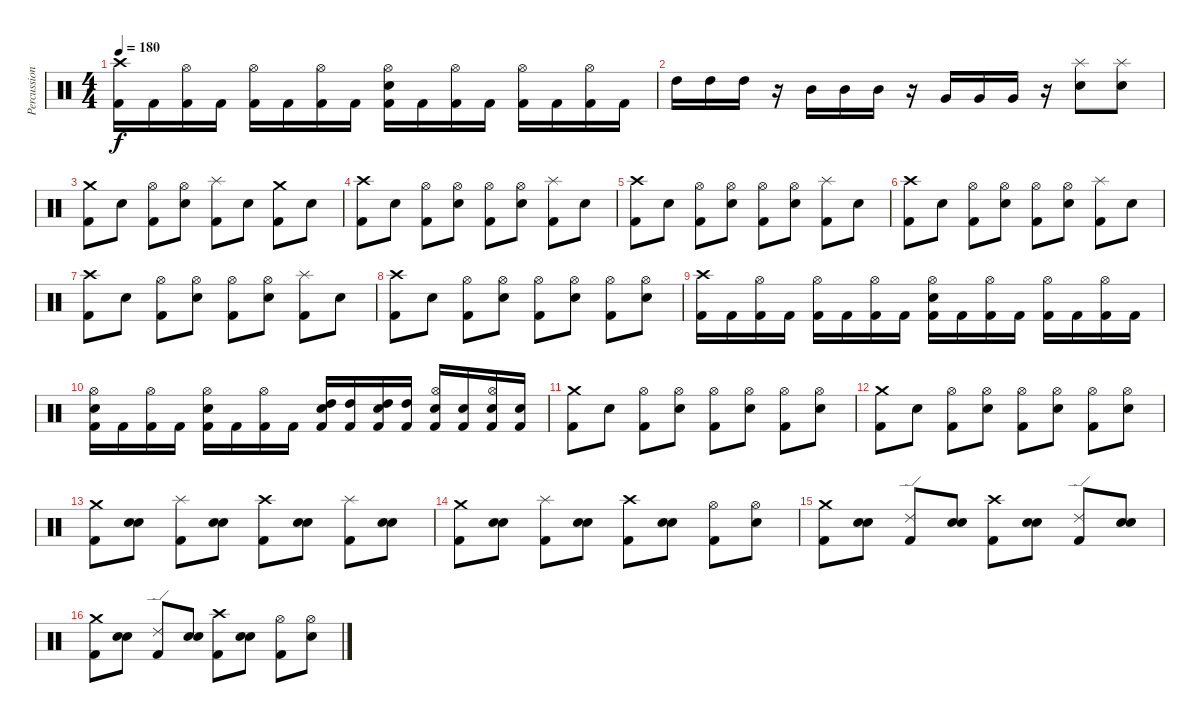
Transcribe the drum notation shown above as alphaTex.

\track ("Percussion" "Percussion") {instrument percussion}
\staff {score}
\articulation defaults
\ts (4 4)
\tempo 180
\clef neutral
\ks c
("Crash high (hit)" "Kick (hit) 2").16{dy f} "Kick (hit) 2".16 ("Hi-Hat (open)" "Kick (hit) 2").16 "Kick (hit) 2".16 ("Hi-Hat (open)" "Kick (hit) 2").16 "Kick (hit) 2".16 ("Hi-Hat (open)" "Kick (hit) 2").16 "Kick (hit) 2".16 ("Hi-Hat (open)" "Snare (hit) 2" "Kick (hit) 2").16 "Kick (hit) 2".16 ("Hi-Hat (open)" "Kick (hit) 2").16 "Kick (hit) 2".16 ("Hi-Hat (open)" "Kick (hit) 2").16 "Kick (hit) 2".16 ("Hi-Hat (open)" "Kick (hit) 2").16 "Kick (hit) 2".16 |
"High Tom (hit)".16 "High Tom (hit)".16 "High Tom (hit)".16 r.16 "Mid Tom (hit)".16 "Mid Tom (hit)".16 "Mid Tom (hit)".16 r.16 "Very Low Tom (hit)".16 "Very Low Tom (hit)".16 "Very Low Tom (hit)".16 r.16 ("Splash (hit)" "Snare (hit) 2").8 ("Splash (hit)" "Snare (hit) 2").8 |
("Crash medium (hit)" "Kick (hit) 2").8 "Snare (hit) 2".8 ("Hi-Hat (open)" "Kick (hit) 2").8 ("Hi-Hat (open)" "Snare (hit) 2").8 ("Splash (hit)" "Kick (hit) 2").8 "Snare (hit) 2".8 ("Crash medium (hit)" "Kick (hit) 2").8 "Snare (hit) 2".8 |
("Crash high (hit)" "Kick (hit) 2").8 "Snare (hit) 2".8 ("Hi-Hat (open)" "Kick (hit) 2").8 ("Hi-Hat (open)" "Snare (hit) 2").8 ("Hi-Hat (open)" "Kick (hit) 2").8 ("Hi-Hat (open)" "Snare (hit) 2").8 ("Splash (hit)" "Kick (hit) 2").8 "Snare (hit) 2".8 |
("Crash high (hit)" "Kick (hit) 2").8 "Snare (hit) 2".8 ("Hi-Hat (open)" "Kick (hit) 2").8 ("Hi-Hat (open)" "Snare (hit) 2").8 ("Hi-Hat (open)" "Kick (hit) 2").8 ("Hi-Hat (open)" "Snare (hit) 2").8 ("Splash (hit)" "Kick (hit) 2").8 "Snare (hit) 2".8 |
("Crash high (hit)" "Kick (hit) 2").8 "Snare (hit) 2".8 ("Hi-Hat (open)" "Kick (hit) 2").8 ("Hi-Hat (open)" "Snare (hit) 2").8 ("Hi-Hat (open)" "Kick (hit) 2").8 ("Hi-Hat (open)" "Snare (hit) 2").8 ("Splash (hit)" "Kick (hit) 2").8 "Snare (hit) 2".8 |
("Crash high (hit)" "Kick (hit) 2").8 "Snare (hit) 2".8 ("Hi-Hat (open)" "Kick (hit) 2").8 ("Hi-Hat (open)" "Snare (hit) 2").8 ("Hi-Hat (open)" "Kick (hit) 2").8 ("Hi-Hat (open)" "Snare (hit) 2").8 ("Splash (hit)" "Kick (hit) 2").8 "Snare (hit) 2".8 |
("Crash high (hit)" "Kick (hit) 2").8 "Snare (hit) 2".8 ("Hi-Hat (open)" "Kick (hit) 2").8 ("Hi-Hat (open)" "Snare (hit) 2").8 ("Hi-Hat (open)" "Kick (hit) 2").8 ("Hi-Hat (open)" "Snare (hit) 2").8 ("Hi-Hat (open)" "Kick (hit) 2").8 ("Hi-Hat (open)" "Snare (hit) 2").8 |
("Crash high (hit)" "Kick (hit) 2").16 "Kick (hit) 2".16 ("Hi-Hat (open)" "Kick (hit) 2").16 "Kick (hit) 2".16 ("Hi-Hat (open)" "Kick (hit) 2").16 "Kick (hit) 2".16 ("Hi-Hat (open)" "Kick (hit) 2").16 "Kick (hit) 2".16 ("Hi-Hat (open)" "Snare (hit) 2" "Kick (hit) 2").16 "Kick (hit) 2".16 ("Hi-Hat (open)" "Kick (hit) 2").16 "Kick (hit) 2".16 ("Hi-Hat (open)" "Kick (hit) 2").16 "Kick (hit) 2".16 ("Hi-Hat (open)" "Kick (hit) 2").16 "Kick (hit) 2".16 |
("Hi-Hat (open)" "Snare (hit) 2" "Kick (hit) 2").16 "Kick (hit) 2".16 ("Hi-Hat (open)" "Kick (hit) 2").16 "Kick (hit) 2".16 ("Hi-Hat (open)" "Snare (hit) 2" "Kick (hit) 2").16 "Kick (hit) 2".16 ("Hi-Hat (open)" "Kick (hit) 2").16 "Kick (hit) 2".16 ("High Tom (hit)" "Snare (hit)" "Kick (hit) 2").16 ("High Tom (hit)" "Kick (hit) 2").16 ("High Tom (hit)" "Snare (hit)" "Kick (hit) 2").16 ("High Tom (hit)" "Kick (hit) 2").16 ("Hi-Hat (open)" "Snare (hit) 2" "Kick (hit) 2").16 ("Snare (hit)" "Kick (hit) 2").16 ("Hi-Hat (open)" "Snare (hit) 2" "Kick (hit) 2").16 ("Snare (hit)" "Kick (hit) 2").16 |
("Crash medium (hit)" "Kick (hit) 2").8 "Snare (hit) 2".8 ("Hi-Hat (open)" "Kick (hit) 2").8 ("Hi-Hat (open)" "Snare (hit) 2").8 ("Hi-Hat (open)" "Kick (hit) 2").8 ("Hi-Hat (open)" "Snare (hit) 2").8 ("Hi-Hat (open)" "Kick (hit) 2").8 ("Hi-Hat (open)" "Snare (hit) 2").8 |
("Crash medium (hit)" "Kick (hit) 2").8 "Snare (hit) 2".8 ("Hi-Hat (open)" "Kick (hit) 2").8 ("Hi-Hat (open)" "Snare (hit) 2").8 ("Hi-Hat (open)" "Kick (hit) 2").8 ("Hi-Hat (open)" "Snare (hit) 2").8 ("Hi-Hat (open)" "Kick (hit) 2").8 ("Hi-Hat (open)" "Snare (hit) 2").8 |
("Crash medium (hit)" "Kick (hit) 2").8 ("Snare (hit)" "Snare (hit) 2").8 ("Splash (hit)" "Kick (hit) 2").8 ("Snare (hit)" "Snare (hit) 2").8 ("Crash high (hit)" "Kick (hit) 2").8 ("Snare (hit)" "Snare (hit) 2").8 ("Splash (hit)" "Kick (hit) 2").8 ("Snare (hit)" "Snare (hit) 2").8 |
("Crash medium (hit)" "Kick (hit) 2").8 ("Snare (hit)" "Snare (hit) 2").8 ("Splash (hit)" "Kick (hit) 2").8 ("Snare (hit)" "Snare (hit) 2").8 ("Crash high (hit)" "Kick (hit) 2").8 ("Snare (hit)" "Snare (hit) 2").8 ("Hi-Hat (open)" "Kick (hit) 2").8 ("Hi-Hat (open)" "Snare (hit) 2").8 |
("Crash medium (hit)" "Kick (hit) 2").8 ("Snare (hit)" "Snare (hit) 2").8 ("Ride (edge) 2" "Kick (hit) 2").8 ("Snare (hit)" "Snare (hit) 2").8 ("Crash high (hit)" "Kick (hit) 2").8 ("Snare (hit)" "Snare (hit) 2").8 ("Ride (edge) 2" "Kick (hit) 2").8 ("Snare (hit)" "Snare (hit) 2").8 |
("Crash medium (hit)" "Kick (hit) 2").8 ("Snare (hit)" "Snare (hit) 2").8 ("Ride (edge) 2" "Kick (hit) 2").8 ("Snare (hit)" "Snare (hit) 2").8 ("Crash high (hit)" "Kick (hit) 2").8 ("Snare (hit)" "Snare (hit) 2").8 ("Hi-Hat (open)" "Kick (hit) 2").8 ("Hi-Hat (open)" "Snare (hit) 2").8
